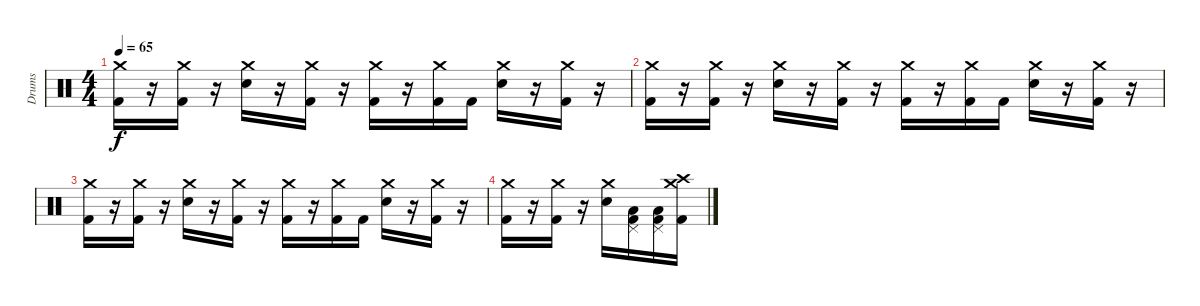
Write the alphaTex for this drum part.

\track ("Drums" "Drums") {instrument percussion}
\staff {score}
\articulation defaults
\ts (4 4)
\tempo 65
\clef neutral
\ks c
("Crash medium (hit)" "Kick (hit) 2").16{dy f} r.16 ("Crash medium (hit)" "Kick (hit) 2").16 r.16 ("Crash medium (hit)" "Electric Snare (hit)").16 r.16 ("Crash medium (hit)" "Kick (hit) 2").16 r.16 ("Crash medium (hit)" "Kick (hit) 2").16 r.16 ("Crash medium (hit)" "Kick (hit) 2").16 "Kick (hit) 2".16 ("Crash medium (hit)" "Electric Snare (hit)").16 r.16 ("Crash medium (hit)" "Kick (hit) 2").16 r.16 |
("Crash medium (hit)" "Kick (hit) 2").16 r.16 ("Crash medium (hit)" "Kick (hit) 2").16 r.16 ("Crash medium (hit)" "Electric Snare (hit)").16 r.16 ("Crash medium (hit)" "Kick (hit) 2").16 r.16 ("Crash medium (hit)" "Kick (hit) 2").16 r.16 ("Crash medium (hit)" "Kick (hit) 2").16 "Kick (hit) 2".16 ("Crash medium (hit)" "Electric Snare (hit)").16 r.16 ("Crash medium (hit)" "Kick (hit) 2").16 r.16 |
("Crash medium (hit)" "Kick (hit) 2").16 r.16 ("Crash medium (hit)" "Kick (hit) 2").16 r.16 ("Crash medium (hit)" "Electric Snare (hit)").16 r.16 ("Crash medium (hit)" "Kick (hit) 2").16 r.16 ("Crash medium (hit)" "Kick (hit) 2").16 r.16 ("Crash medium (hit)" "Kick (hit) 2").16 "Kick (hit) 2".16 ("Crash medium (hit)" "Electric Snare (hit)").16 r.16 ("Crash medium (hit)" "Kick (hit) 2").16 r.16 |
("Crash medium (hit)" "Kick (hit) 2").16 r.16 ("Crash medium (hit)" "Kick (hit) 2").16 r.16 ("Crash medium (hit)" "Electric Snare (hit)").16 ("Pedal Hi-Hat (hit)" "Low Tom (hit)" "Kick (hit) 2").16 ("Pedal Hi-Hat (hit)" "Low Tom (hit)" "Kick (hit) 2").16 ("Crash medium (hit)" "Crash high (hit)" "Kick (hit) 2").16
